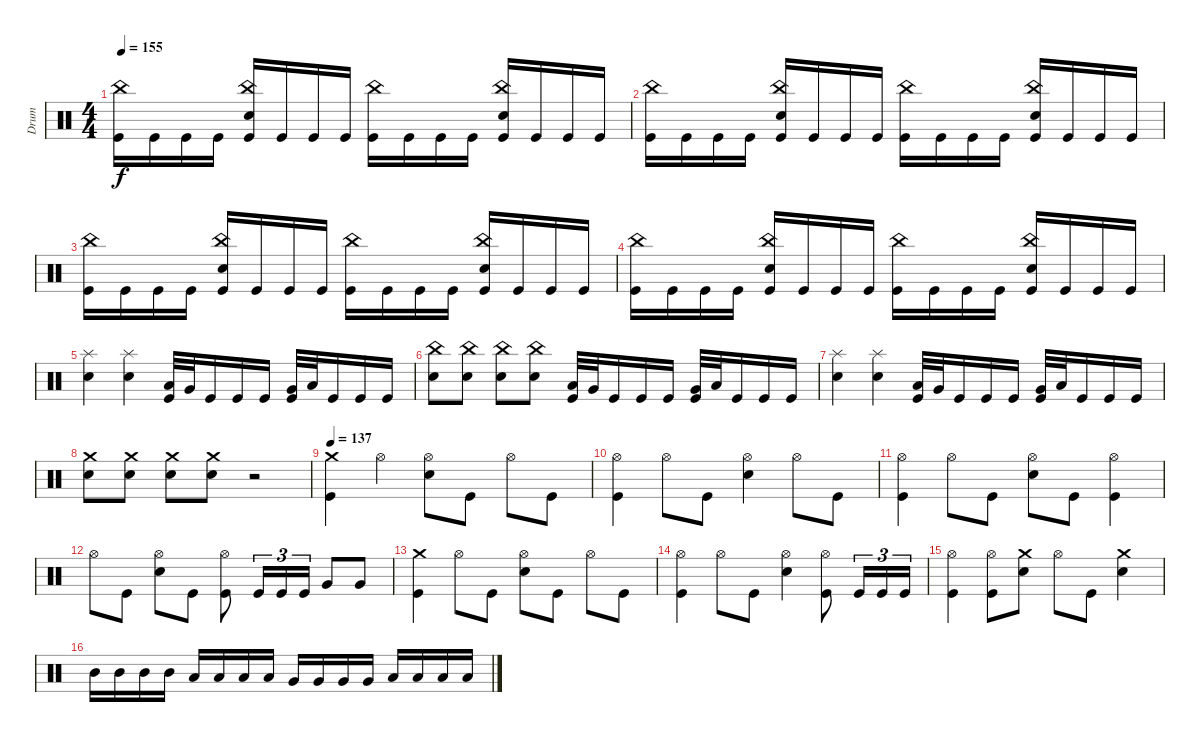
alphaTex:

\track ("Drum" "Drum") {instrument percussion}
\staff {score}
\articulation defaults
\ts (4 4)
\tempo 155
\clef neutral
\ks c
("Kick (hit)" "China (hit)").16{dy f} "Kick (hit)".16 "Kick (hit)".16 "Kick (hit)".16 ("Kick (hit)" "Electric Snare (hit)" "China (hit)").16 "Kick (hit)".16 "Kick (hit)".16 "Kick (hit)".16 ("Kick (hit)" "China (hit)").16 "Kick (hit)".16 "Kick (hit)".16 "Kick (hit)".16 ("Kick (hit)" "Electric Snare (hit)" "China (hit)").16 "Kick (hit)".16 "Kick (hit)".16 "Kick (hit)".16 |
("Kick (hit)" "China (hit)").16 "Kick (hit)".16 "Kick (hit)".16 "Kick (hit)".16 ("Kick (hit)" "Electric Snare (hit)" "China (hit)").16 "Kick (hit)".16 "Kick (hit)".16 "Kick (hit)".16 ("Kick (hit)" "China (hit)").16 "Kick (hit)".16 "Kick (hit)".16 "Kick (hit)".16 ("Kick (hit)" "Electric Snare (hit)" "China (hit)").16 "Kick (hit)".16 "Kick (hit)".16 "Kick (hit)".16 |
("Kick (hit)" "China (hit)").16 "Kick (hit)".16 "Kick (hit)".16 "Kick (hit)".16 ("Kick (hit)" "Electric Snare (hit)" "China (hit)").16 "Kick (hit)".16 "Kick (hit)".16 "Kick (hit)".16 ("Kick (hit)" "China (hit)").16 "Kick (hit)".16 "Kick (hit)".16 "Kick (hit)".16 ("Kick (hit)" "Electric Snare (hit)" "China (hit)").16 "Kick (hit)".16 "Kick (hit)".16 "Kick (hit)".16 |
("Kick (hit)" "China (hit)").16 "Kick (hit)".16 "Kick (hit)".16 "Kick (hit)".16 ("Kick (hit)" "Electric Snare (hit)" "China (hit)").16 "Kick (hit)".16 "Kick (hit)".16 "Kick (hit)".16 ("Kick (hit)" "China (hit)").16 "Kick (hit)".16 "Kick (hit)".16 "Kick (hit)".16 ("Kick (hit)" "Electric Snare (hit)" "China (hit)").16 "Kick (hit)".16 "Kick (hit)".16 "Kick (hit)".16 |
("Electric Snare (hit)" "Splash (hit)").4 ("Electric Snare (hit)" "Splash (hit)").4 ("Kick (hit)" "Low Tom (hit)").32 "Very Low Tom (hit)".32 "Kick (hit)".16 "Kick (hit)".16 "Kick (hit)".16 ("Kick (hit)" "Very Low Tom (hit)").32 "Low Floor Tom (hit)".32 "Kick (hit)".16 "Kick (hit)".16 "Kick (hit)".16 |
("Electric Snare (hit)" "China (hit)").8 ("Electric Snare (hit)" "China (hit)").8 ("Electric Snare (hit)" "China (hit)").8 ("Electric Snare (hit)" "China (hit)").8 ("Kick (hit)" "Low Tom (hit)").32 "Very Low Tom (hit)".32 "Kick (hit)".16 "Kick (hit)".16 "Kick (hit)".16 ("Kick (hit)" "Very Low Tom (hit)").32 "Low Floor Tom (hit)".32 "Kick (hit)".16 "Kick (hit)".16 "Kick (hit)".16 |
("Electric Snare (hit)" "Splash (hit)").4 ("Electric Snare (hit)" "Splash (hit)").4 ("Kick (hit)" "Low Tom (hit)").32 "Very Low Tom (hit)".32 "Kick (hit)".16 "Kick (hit)".16 "Kick (hit)".16 ("Kick (hit)" "Very Low Tom (hit)").32 "Low Floor Tom (hit)".32 "Kick (hit)".16 "Kick (hit)".16 "Kick (hit)".16 |
("Electric Snare (hit)" "Crash medium (hit)").8 ("Electric Snare (hit)" "Crash medium (hit)").8 ("Electric Snare (hit)" "Crash medium (hit)").8 ("Electric Snare (hit)" "Crash medium (hit)").8 r.2 |
\tempo 137
("Kick (hit)" "Crash medium (hit)").4 "Hi-Hat (open)".4 ("Electric Snare (hit)" "Hi-Hat (open)").8 "Kick (hit)".8 "Hi-Hat (open)".8 "Kick (hit)".8 |
("Kick (hit)" "Hi-Hat (open)").4 "Hi-Hat (open)".8 "Kick (hit)".8 ("Electric Snare (hit)" "Hi-Hat (open)").4 "Hi-Hat (open)".8 "Kick (hit)".8 |
("Kick (hit)" "Hi-Hat (open)").4 "Hi-Hat (open)".8 "Kick (hit)".8 ("Electric Snare (hit)" "Hi-Hat (open)").8 "Kick (hit)".8 ("Kick (hit)" "Hi-Hat (open)").4 |
"Hi-Hat (open)".8 "Kick (hit)".8 ("Electric Snare (hit)" "Hi-Hat (open)").8 "Kick (hit)".8 ("Kick (hit)" "Hi-Hat (open)").8 "Kick (hit)".16{tu (3 2)} "Kick (hit)".16{tu (3 2)} "Kick (hit)".16{tu (3 2)} "Very Low Tom (hit)".8 "Very Low Tom (hit)".8 |
("Kick (hit)" "Crash medium (hit)").4 "Hi-Hat (open)".8 "Kick (hit)".8 ("Electric Snare (hit)" "Hi-Hat (open)").8 "Kick (hit)".8 "Hi-Hat (open)".8 "Kick (hit)".8 |
("Kick (hit)" "Hi-Hat (open)").4 "Hi-Hat (open)".8 "Kick (hit)".8 ("Electric Snare (hit)" "Hi-Hat (open)").4 ("Kick (hit)" "Hi-Hat (open)").8 "Kick (hit)".16{tu (3 2)} "Kick (hit)".16{tu (3 2)} "Kick (hit)".16{tu (3 2)} |
("Kick (hit)" "Hi-Hat (open)").4 ("Kick (hit)" "Hi-Hat (open)").8 ("Electric Snare (hit)" "Crash medium (hit)").8 "Hi-Hat (open)".8 "Kick (hit)".8 ("Electric Snare (hit)" "Crash medium (hit)").4 |
"Mid Tom (hit)".16 "Mid Tom (hit)".16 "Mid Tom (hit)".16 "Mid Tom (hit)".16 "Low Tom (hit)".16 "Low Tom (hit)".16 "Low Tom (hit)".16 "Low Tom (hit)".16 "Very Low Tom (hit)".16 "Very Low Tom (hit)".16 "Very Low Tom (hit)".16 "Very Low Tom (hit)".16 "Low Floor Tom (hit)".16 "Low Floor Tom (hit)".16 "Low Floor Tom (hit)".16 "Low Floor Tom (hit)".16
